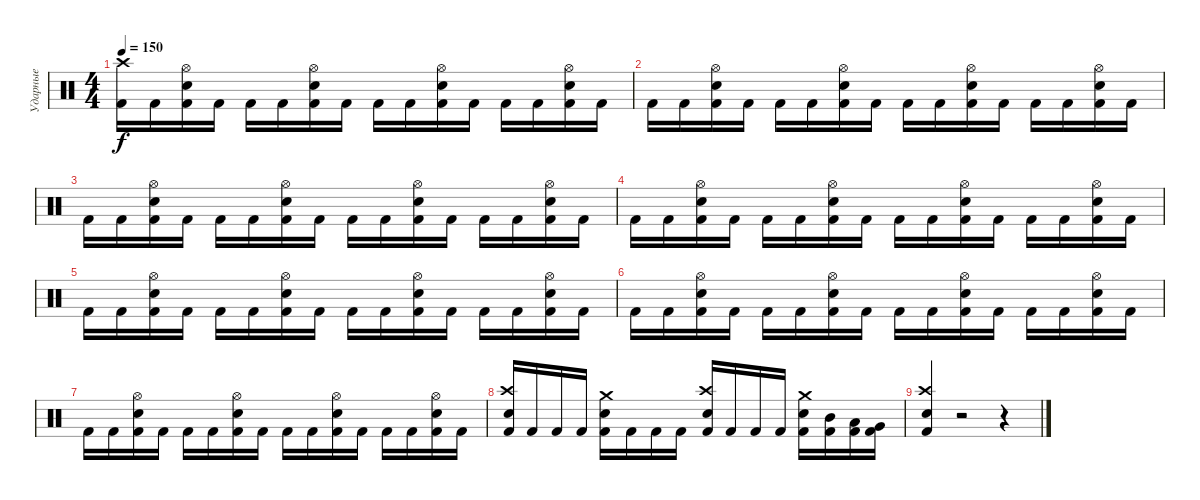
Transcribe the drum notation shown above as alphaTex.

\track ("Ударные" "Ударные") {instrument percussion}
\staff {score}
\articulation defaults
\ts (4 4)
\tempo 150
\clef neutral
\ks c
("Kick (hit) 2" "Crash high (hit)").16{dy f} "Kick (hit) 2".16 ("Kick (hit) 2" "Electric Snare (hit)" "Hi-Hat (open)").16 "Kick (hit) 2".16 "Kick (hit) 2".16 "Kick (hit) 2".16 ("Kick (hit) 2" "Electric Snare (hit)" "Hi-Hat (open)").16 "Kick (hit) 2".16 "Kick (hit) 2".16 "Kick (hit) 2".16 ("Kick (hit) 2" "Electric Snare (hit)" "Hi-Hat (open)").16 "Kick (hit) 2".16 "Kick (hit) 2".16 "Kick (hit) 2".16 ("Kick (hit) 2" "Electric Snare (hit)" "Hi-Hat (open)").16 "Kick (hit) 2".16 |
"Kick (hit) 2".16 "Kick (hit) 2".16 ("Kick (hit) 2" "Electric Snare (hit)" "Hi-Hat (open)").16 "Kick (hit) 2".16 "Kick (hit) 2".16 "Kick (hit) 2".16 ("Kick (hit) 2" "Electric Snare (hit)" "Hi-Hat (open)").16 "Kick (hit) 2".16 "Kick (hit) 2".16 "Kick (hit) 2".16 ("Kick (hit) 2" "Electric Snare (hit)" "Hi-Hat (open)").16 "Kick (hit) 2".16 "Kick (hit) 2".16 "Kick (hit) 2".16 ("Kick (hit) 2" "Electric Snare (hit)" "Hi-Hat (open)").16 "Kick (hit) 2".16 |
"Kick (hit) 2".16 "Kick (hit) 2".16 ("Kick (hit) 2" "Electric Snare (hit)" "Hi-Hat (open)").16 "Kick (hit) 2".16 "Kick (hit) 2".16 "Kick (hit) 2".16 ("Kick (hit) 2" "Electric Snare (hit)" "Hi-Hat (open)").16 "Kick (hit) 2".16 "Kick (hit) 2".16 "Kick (hit) 2".16 ("Kick (hit) 2" "Electric Snare (hit)" "Hi-Hat (open)").16 "Kick (hit) 2".16 "Kick (hit) 2".16 "Kick (hit) 2".16 ("Kick (hit) 2" "Electric Snare (hit)" "Hi-Hat (open)").16 "Kick (hit) 2".16 |
"Kick (hit) 2".16 "Kick (hit) 2".16 ("Kick (hit) 2" "Electric Snare (hit)" "Hi-Hat (open)").16 "Kick (hit) 2".16 "Kick (hit) 2".16 "Kick (hit) 2".16 ("Kick (hit) 2" "Electric Snare (hit)" "Hi-Hat (open)").16 "Kick (hit) 2".16 "Kick (hit) 2".16 "Kick (hit) 2".16 ("Kick (hit) 2" "Electric Snare (hit)" "Hi-Hat (open)").16 "Kick (hit) 2".16 "Kick (hit) 2".16 "Kick (hit) 2".16 ("Kick (hit) 2" "Electric Snare (hit)" "Hi-Hat (open)").16 "Kick (hit) 2".16 |
"Kick (hit) 2".16 "Kick (hit) 2".16 ("Kick (hit) 2" "Electric Snare (hit)" "Hi-Hat (open)").16 "Kick (hit) 2".16 "Kick (hit) 2".16 "Kick (hit) 2".16 ("Kick (hit) 2" "Electric Snare (hit)" "Hi-Hat (open)").16 "Kick (hit) 2".16 "Kick (hit) 2".16 "Kick (hit) 2".16 ("Kick (hit) 2" "Electric Snare (hit)" "Hi-Hat (open)").16 "Kick (hit) 2".16 "Kick (hit) 2".16 "Kick (hit) 2".16 ("Kick (hit) 2" "Electric Snare (hit)" "Hi-Hat (open)").16 "Kick (hit) 2".16 |
"Kick (hit) 2".16 "Kick (hit) 2".16 ("Kick (hit) 2" "Electric Snare (hit)" "Hi-Hat (open)").16 "Kick (hit) 2".16 "Kick (hit) 2".16 "Kick (hit) 2".16 ("Kick (hit) 2" "Electric Snare (hit)" "Hi-Hat (open)").16 "Kick (hit) 2".16 "Kick (hit) 2".16 "Kick (hit) 2".16 ("Kick (hit) 2" "Electric Snare (hit)" "Hi-Hat (open)").16 "Kick (hit) 2".16 "Kick (hit) 2".16 "Kick (hit) 2".16 ("Kick (hit) 2" "Electric Snare (hit)" "Hi-Hat (open)").16 "Kick (hit) 2".16 |
"Kick (hit) 2".16 "Kick (hit) 2".16 ("Kick (hit) 2" "Electric Snare (hit)" "Hi-Hat (open)").16 "Kick (hit) 2".16 "Kick (hit) 2".16 "Kick (hit) 2".16 ("Kick (hit) 2" "Electric Snare (hit)" "Hi-Hat (open)").16 "Kick (hit) 2".16 "Kick (hit) 2".16 "Kick (hit) 2".16 ("Kick (hit) 2" "Electric Snare (hit)" "Hi-Hat (open)").16 "Kick (hit) 2".16 "Kick (hit) 2".16 "Kick (hit) 2".16 ("Kick (hit) 2" "Electric Snare (hit)" "Hi-Hat (open)").16 "Kick (hit) 2".16 |
("Kick (hit) 2" "Electric Snare (hit)" "Crash high (hit)").16 "Kick (hit) 2".16 "Kick (hit) 2".16 "Kick (hit) 2".16 ("Kick (hit) 2" "Electric Snare (hit)" "Crash medium (hit)").16 "Kick (hit) 2".16 "Kick (hit) 2".16 "Kick (hit) 2".16 ("Kick (hit) 2" "Electric Snare (hit)" "Crash high (hit)").16 "Kick (hit) 2".16 "Kick (hit) 2".16 "Kick (hit) 2".16 ("Kick (hit) 2" "Electric Snare (hit)" "Crash medium (hit)").16 ("Kick (hit) 2" "Mid Tom (hit)").16 ("Kick (hit) 2" "Low Tom (hit)").16 ("Kick (hit) 2" "Very Low Tom (hit)").16 |
("Kick (hit) 2" "Electric Snare (hit)" "Crash high (hit)").4 r.2 r.4
